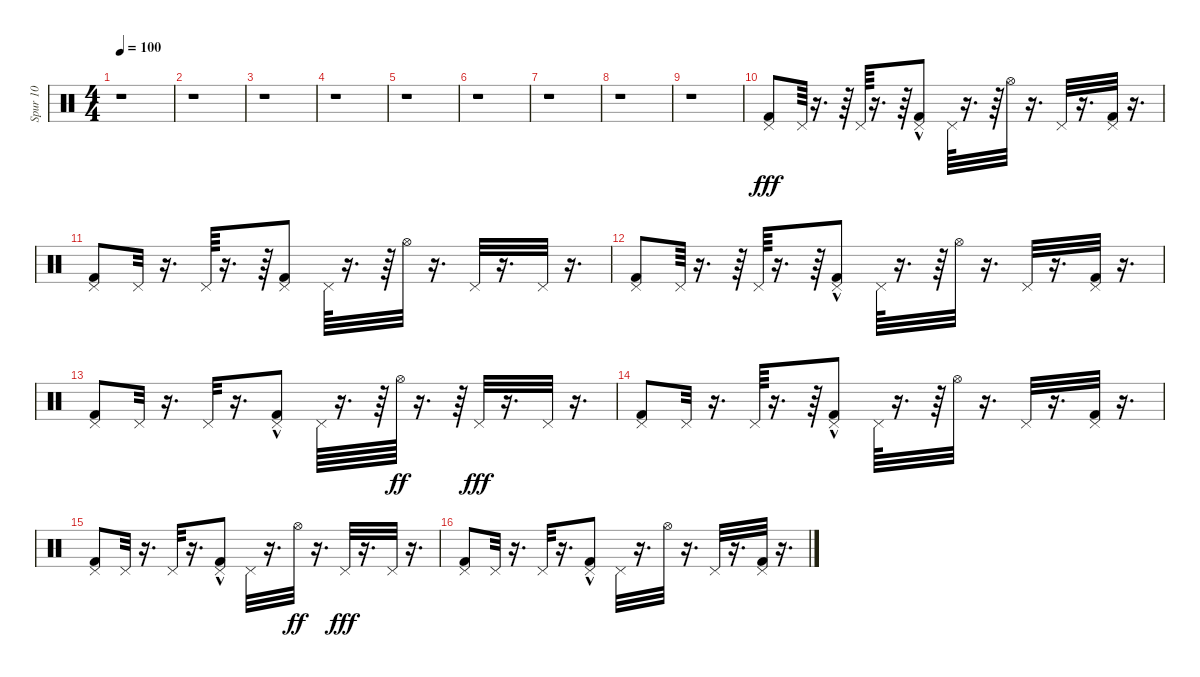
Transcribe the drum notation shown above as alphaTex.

\track ("Spur 10" "Spur 10") {instrument percussion}
\staff {score}
\articulation defaults
\ts (4 4)
\tempo 100
\clef neutral
\ks c
r.1{dy fff} |
r.1 |
r.1 |
r.1 |
r.1 |
r.1 |
r.1 |
r.1 |
r.1 |
("Pedal Hi-Hat (hit)" "Kick (hit) 2").8 "Pedal Hi-Hat (hit)".64 r.16{d} r.64 "Pedal Hi-Hat (hit)".64 r.16{d} r.64 ("Pedal Hi-Hat (hit)" "Kick (hit) 2"{hac}).8 "Pedal Hi-Hat (hit)".64 r.16{d} r.64 "Hi-Hat (open)".32 r.16{d} "Pedal Hi-Hat (hit)".32 r.16{d} ("Pedal Hi-Hat (hit)" "Kick (hit) 2").32 r.16{d} |
("Pedal Hi-Hat (hit)" "Kick (hit) 2").8 "Pedal Hi-Hat (hit)".32 r.16{d} "Pedal Hi-Hat (hit)".64 r.16{d} r.64 ("Pedal Hi-Hat (hit)" "Kick (hit) 2").8 "Pedal Hi-Hat (hit)".64 r.16{d} r.64 "Hi-Hat (open)".32 r.16{d} "Pedal Hi-Hat (hit)".32 r.16{d} "Pedal Hi-Hat (hit)".32 r.16{d} |
("Pedal Hi-Hat (hit)" "Kick (hit) 2").8 "Pedal Hi-Hat (hit)".64 r.16{d} r.64 "Pedal Hi-Hat (hit)".64 r.16{d} r.64 ("Pedal Hi-Hat (hit)" "Kick (hit) 2"{hac}).8 "Pedal Hi-Hat (hit)".64 r.16{d} r.64 "Hi-Hat (open)".32 r.16{d} "Pedal Hi-Hat (hit)".32 r.16{d} ("Pedal Hi-Hat (hit)" "Kick (hit) 2").32 r.16{d} |
("Pedal Hi-Hat (hit)" "Kick (hit) 2").8 "Pedal Hi-Hat (hit)".32 r.16{d} "Pedal Hi-Hat (hit)".32 r.16{d} ("Pedal Hi-Hat (hit)" "Kick (hit) 2"{hac}).8 "Pedal Hi-Hat (hit)".64 r.16{d} r.64 "Hi-Hat (open)".64{dy ff} r.16{d} r.64 "Pedal Hi-Hat (hit)".32{dy fff} r.16{d} "Pedal Hi-Hat (hit)".32 r.16{d} |
("Pedal Hi-Hat (hit)" "Kick (hit) 2").8 "Pedal Hi-Hat (hit)".32 r.16{d} "Pedal Hi-Hat (hit)".64 r.16{d} r.64 ("Pedal Hi-Hat (hit)" "Kick (hit) 2"{hac}).8 "Pedal Hi-Hat (hit)".64 r.16{d} r.64 "Hi-Hat (open)".32 r.16{d} "Pedal Hi-Hat (hit)".32 r.16{d} ("Pedal Hi-Hat (hit)" "Kick (hit) 2").32 r.16{d} |
("Pedal Hi-Hat (hit)" "Kick (hit) 2").8 "Pedal Hi-Hat (hit)".32 r.16{d} "Pedal Hi-Hat (hit)".32 r.16{d} ("Pedal Hi-Hat (hit)" "Kick (hit) 2"{hac}).8 "Pedal Hi-Hat (hit)".32 r.16{d} "Hi-Hat (open)".32{dy ff} r.16{d} "Pedal Hi-Hat (hit)".32{dy fff} r.16{d} "Pedal Hi-Hat (hit)".32 r.16{d} |
("Pedal Hi-Hat (hit)" "Kick (hit) 2").8 "Pedal Hi-Hat (hit)".32 r.16{d} "Pedal Hi-Hat (hit)".32 r.16{d} ("Pedal Hi-Hat (hit)" "Kick (hit) 2"{hac}).8 "Pedal Hi-Hat (hit)".32 r.16{d} "Hi-Hat (open)".32 r.16{d} "Pedal Hi-Hat (hit)".32 r.16{d} ("Pedal Hi-Hat (hit)" "Kick (hit) 2").32 r.16{d}
